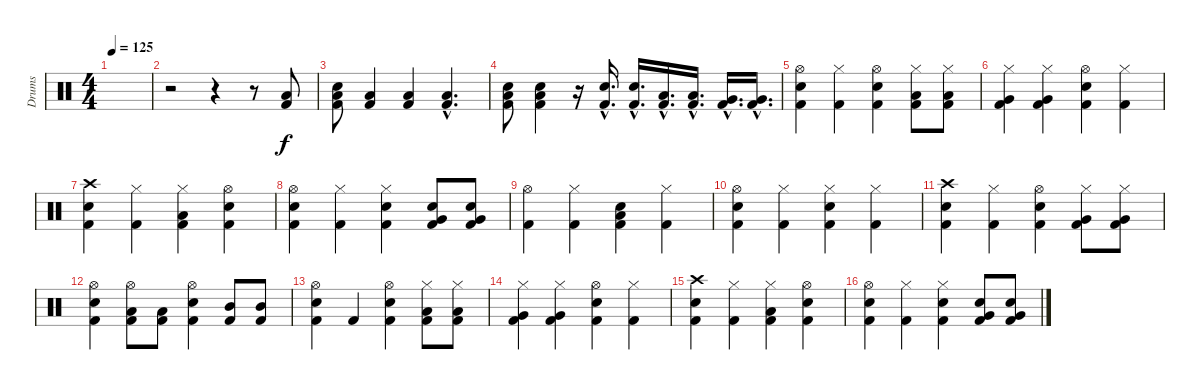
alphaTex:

\track ("Drums" "Drums") {instrument percussion}
\staff {score}
\articulation defaults
\ts (4 4)
\tempo 125
\clef neutral
\ks c
|
r.2 r.4 r.8 ("Low Tom (hit)" "Kick (hit) 2").8 |
("Low Tom (hit)" "Kick (hit) 2" "Electric Snare (hit)").8 ("Low Tom (hit)" "Kick (hit) 2").4 ("Low Tom (hit)" "Kick (hit) 2").4 ("Low Tom (hit)"{hac} "Kick (hit) 2"{hac}).4{d} |
("Low Tom (hit)" "Kick (hit) 2" "Electric Snare (hit)").8 ("Low Tom (hit)" "Kick (hit) 2" "Electric Snare (hit)").4 r.16 ("Electric Snare (hit)"{hac} "Kick (hit) 2"{hac}).16{d} ("Electric Snare (hit)"{hac} "Kick (hit) 2"{hac}).16{d} ("Low Tom (hit)"{hac} "Kick (hit) 2"{hac}).16{d} ("Low Tom (hit)"{hac} "Kick (hit) 2"{hac}).16{d} ("Very Low Tom (hit)"{hac} "Kick (hit) 2"{hac}).16{d} ("Very Low Tom (hit)"{hac} "Kick (hit) 2"{hac}).16{d} |
("Electric Snare (hit)" "Kick (hit) 2" "Hi-Hat (open)").4 ("Kick (hit) 2" "Hi-Hat (closed)").4 ("Electric Snare (hit)" "Kick (hit) 2" "Hi-Hat (open)").4 ("Low Tom (hit)" "Kick (hit) 2" "Hi-Hat (closed)").8 ("Low Tom (hit)" "Kick (hit) 2" "Hi-Hat (closed)").8 |
("Very Low Tom (hit)" "Kick (hit) 2" "Hi-Hat (closed)").4 ("Very Low Tom (hit)" "Kick (hit) 2" "Hi-Hat (closed)").4 ("Electric Snare (hit)" "Kick (hit) 2" "Hi-Hat (open)").4 ("Kick (hit) 2" "Hi-Hat (closed)").4 |
("Electric Snare (hit)" "Kick (hit) 2" "Crash high (hit)").4 ("Kick (hit) 2" "Hi-Hat (closed)").4 ("Low Tom (hit)" "Kick (hit) 2" "Hi-Hat (closed)").4 ("Electric Snare (hit)" "Kick (hit) 2" "Hi-Hat (open)").4 |
("Electric Snare (hit)" "Kick (hit) 2" "Hi-Hat (open)").4 ("Kick (hit) 2" "Hi-Hat (closed)").4 ("Electric Snare (hit)" "Kick (hit) 2" "Hi-Hat (closed)").4 ("Electric Snare (hit)" "Kick (hit) 2" "Very Low Tom (hit)").8 ("Electric Snare (hit)" "Kick (hit) 2" "Very Low Tom (hit)").8 |
("Kick (hit) 2" "Hi-Hat (open)").4 ("Kick (hit) 2" "Hi-Hat (closed)").4 ("Electric Snare (hit)" "Kick (hit) 2" "Low Tom (hit)").4 ("Kick (hit) 2" "Hi-Hat (closed)").4 |
("Electric Snare (hit)" "Kick (hit) 2" "Hi-Hat (open)").4 ("Kick (hit) 2" "Hi-Hat (closed)").4 ("Electric Snare (hit)" "Kick (hit) 2" "Hi-Hat (closed)").4 ("Kick (hit) 2" "Hi-Hat (closed)").4 |
("Electric Snare (hit)" "Kick (hit) 2" "Crash high (hit)").4 ("Kick (hit) 2" "Hi-Hat (closed)").4 ("Electric Snare (hit)" "Kick (hit) 2" "Hi-Hat (open)").4 ("Very Low Tom (hit)" "Kick (hit) 2" "Hi-Hat (closed)").8 ("Very Low Tom (hit)" "Kick (hit) 2" "Hi-Hat (closed)").8 |
("Electric Snare (hit)" "Kick (hit) 2" "Hi-Hat (open)").4 ("Low Tom (hit)" "Kick (hit) 2" "Hi-Hat (open)").8 ("Low Tom (hit)" "Kick (hit) 2").8 ("Electric Snare (hit)" "Kick (hit) 2" "Hi-Hat (open)").4 ("Mid Tom (hit)" "Kick (hit) 2").8 ("Mid Tom (hit)" "Kick (hit) 2").8 |
("Electric Snare (hit)" "Kick (hit) 2" "Hi-Hat (open)").4 "Kick (hit) 2".4 ("Electric Snare (hit)" "Kick (hit) 2" "Hi-Hat (open)").4 ("Low Tom (hit)" "Kick (hit) 2" "Hi-Hat (closed)").8 ("Low Tom (hit)" "Kick (hit) 2" "Hi-Hat (closed)").8 |
("Very Low Tom (hit)" "Kick (hit) 2" "Hi-Hat (closed)").4 ("Very Low Tom (hit)" "Kick (hit) 2" "Hi-Hat (closed)").4 ("Electric Snare (hit)" "Kick (hit) 2" "Hi-Hat (open)").4 ("Kick (hit) 2" "Hi-Hat (closed)").4 |
("Electric Snare (hit)" "Kick (hit) 2" "Crash high (hit)").4 ("Kick (hit) 2" "Hi-Hat (closed)").4 ("Low Tom (hit)" "Kick (hit) 2" "Hi-Hat (closed)").4 ("Electric Snare (hit)" "Kick (hit) 2" "Hi-Hat (open)").4 |
("Electric Snare (hit)" "Kick (hit) 2" "Hi-Hat (open)").4 ("Kick (hit) 2" "Hi-Hat (closed)").4 ("Electric Snare (hit)" "Kick (hit) 2" "Hi-Hat (closed)").4 ("Electric Snare (hit)" "Kick (hit) 2" "Very Low Tom (hit)").8 ("Electric Snare (hit)" "Kick (hit) 2" "Very Low Tom (hit)").8
